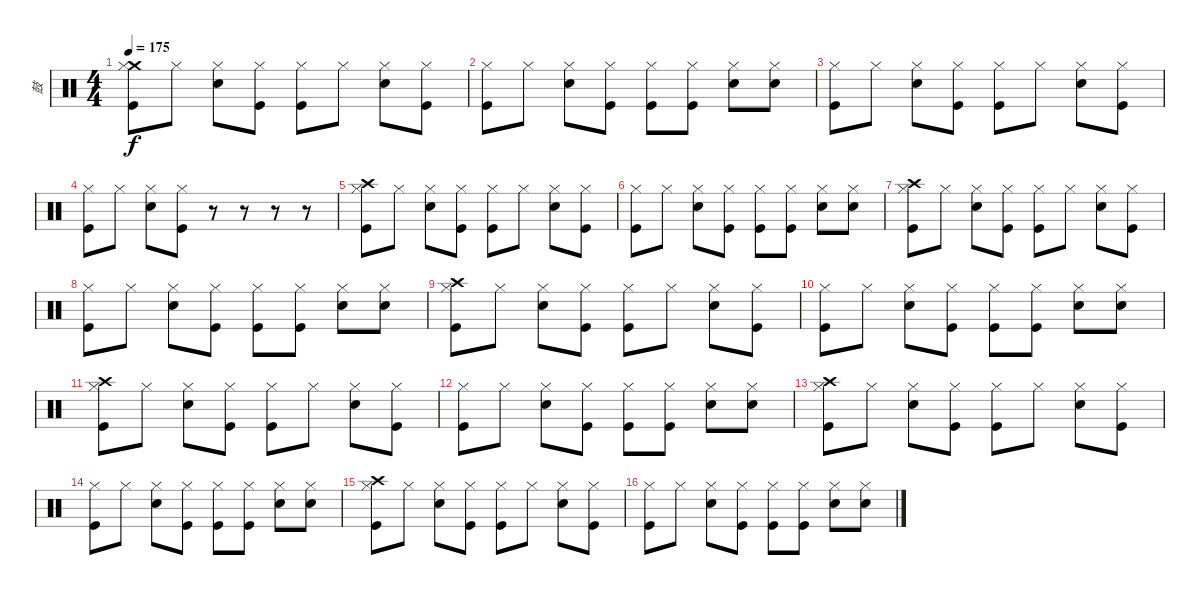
\track ("鼓" "鼓") {instrument percussion}
\staff {score}
\articulation defaults
\ts (4 4)
\tempo 175
\clef neutral
\ks c
("Crash medium (hit)" "Hi-Hat (closed)" "Kick (hit)").8{dy f} "Hi-Hat (closed)".8 ("Hi-Hat (closed)" "Snare (hit) 2").8 ("Hi-Hat (closed)" "Kick (hit)").8 ("Hi-Hat (closed)" "Kick (hit)").8 "Hi-Hat (closed)".8 ("Hi-Hat (closed)" "Snare (hit) 2").8 ("Hi-Hat (closed)" "Kick (hit)").8 |
("Hi-Hat (closed)" "Kick (hit)").8 "Hi-Hat (closed)".8 ("Hi-Hat (closed)" "Snare (hit) 2").8 ("Hi-Hat (closed)" "Kick (hit)").8 ("Hi-Hat (closed)" "Kick (hit)").8 ("Hi-Hat (closed)" "Kick (hit)").8 ("Hi-Hat (closed)" "Snare (hit) 2").8 ("Hi-Hat (closed)" "Snare (hit) 2").8 |
("Hi-Hat (closed)" "Kick (hit)").8 "Hi-Hat (closed)".8 ("Hi-Hat (closed)" "Snare (hit) 2").8 ("Hi-Hat (closed)" "Kick (hit)").8 ("Hi-Hat (closed)" "Kick (hit)").8 "Hi-Hat (closed)".8 ("Hi-Hat (closed)" "Snare (hit) 2").8 ("Hi-Hat (closed)" "Kick (hit)").8 |
("Hi-Hat (closed)" "Kick (hit)").8 "Hi-Hat (closed)".8 ("Hi-Hat (closed)" "Snare (hit) 2").8 ("Hi-Hat (closed)" "Kick (hit)").8 r.8 r.8 r.8 r.8 |
("Crash high (hit)" "Hi-Hat (closed)" "Kick (hit)").8 "Hi-Hat (closed)".8 ("Hi-Hat (closed)" "Snare (hit) 2").8 ("Hi-Hat (closed)" "Kick (hit)").8 ("Hi-Hat (closed)" "Kick (hit)").8 "Hi-Hat (closed)".8 ("Hi-Hat (closed)" "Snare (hit) 2").8 ("Hi-Hat (closed)" "Kick (hit)").8 |
("Hi-Hat (closed)" "Kick (hit)").8 "Hi-Hat (closed)".8 ("Hi-Hat (closed)" "Snare (hit) 2").8 ("Hi-Hat (closed)" "Kick (hit)").8 ("Hi-Hat (closed)" "Kick (hit)").8 ("Hi-Hat (closed)" "Kick (hit)").8 ("Hi-Hat (closed)" "Snare (hit) 2").8 ("Hi-Hat (closed)" "Snare (hit) 2").8 |
("Crash high (hit)" "Hi-Hat (closed)" "Kick (hit)").8 "Hi-Hat (closed)".8 ("Hi-Hat (closed)" "Snare (hit) 2").8 ("Hi-Hat (closed)" "Kick (hit)").8 ("Hi-Hat (closed)" "Kick (hit)").8 "Hi-Hat (closed)".8 ("Hi-Hat (closed)" "Snare (hit) 2").8 ("Hi-Hat (closed)" "Kick (hit)").8 |
("Hi-Hat (closed)" "Kick (hit)").8 "Hi-Hat (closed)".8 ("Hi-Hat (closed)" "Snare (hit) 2").8 ("Hi-Hat (closed)" "Kick (hit)").8 ("Hi-Hat (closed)" "Kick (hit)").8 ("Hi-Hat (closed)" "Kick (hit)").8 ("Hi-Hat (closed)" "Snare (hit) 2").8 ("Hi-Hat (closed)" "Snare (hit) 2").8 |
("Crash high (hit)" "Hi-Hat (closed)" "Kick (hit)").8 "Hi-Hat (closed)".8 ("Hi-Hat (closed)" "Snare (hit) 2").8 ("Hi-Hat (closed)" "Kick (hit)").8 ("Hi-Hat (closed)" "Kick (hit)").8 "Hi-Hat (closed)".8 ("Hi-Hat (closed)" "Snare (hit) 2").8 ("Hi-Hat (closed)" "Kick (hit)").8 |
("Hi-Hat (closed)" "Kick (hit)").8 "Hi-Hat (closed)".8 ("Hi-Hat (closed)" "Snare (hit) 2").8 ("Hi-Hat (closed)" "Kick (hit)").8 ("Hi-Hat (closed)" "Kick (hit)").8 ("Hi-Hat (closed)" "Kick (hit)").8 ("Hi-Hat (closed)" "Snare (hit) 2").8 ("Hi-Hat (closed)" "Snare (hit) 2").8 |
("Crash high (hit)" "Hi-Hat (closed)" "Kick (hit)").8 "Hi-Hat (closed)".8 ("Hi-Hat (closed)" "Snare (hit) 2").8 ("Hi-Hat (closed)" "Kick (hit)").8 ("Hi-Hat (closed)" "Kick (hit)").8 "Hi-Hat (closed)".8 ("Hi-Hat (closed)" "Snare (hit) 2").8 ("Hi-Hat (closed)" "Kick (hit)").8 |
("Hi-Hat (closed)" "Kick (hit)").8 "Hi-Hat (closed)".8 ("Hi-Hat (closed)" "Snare (hit) 2").8 ("Hi-Hat (closed)" "Kick (hit)").8 ("Hi-Hat (closed)" "Kick (hit)").8 ("Hi-Hat (closed)" "Kick (hit)").8 ("Hi-Hat (closed)" "Snare (hit) 2").8 ("Hi-Hat (closed)" "Snare (hit) 2").8 |
("Crash high (hit)" "Hi-Hat (closed)" "Kick (hit)").8 "Hi-Hat (closed)".8 ("Hi-Hat (closed)" "Snare (hit) 2").8 ("Hi-Hat (closed)" "Kick (hit)").8 ("Hi-Hat (closed)" "Kick (hit)").8 "Hi-Hat (closed)".8 ("Hi-Hat (closed)" "Snare (hit) 2").8 ("Hi-Hat (closed)" "Kick (hit)").8 |
("Hi-Hat (closed)" "Kick (hit)").8 "Hi-Hat (closed)".8 ("Hi-Hat (closed)" "Snare (hit) 2").8 ("Hi-Hat (closed)" "Kick (hit)").8 ("Hi-Hat (closed)" "Kick (hit)").8 ("Hi-Hat (closed)" "Kick (hit)").8 ("Hi-Hat (closed)" "Snare (hit) 2").8 ("Hi-Hat (closed)" "Snare (hit) 2").8 |
("Crash high (hit)" "Hi-Hat (closed)" "Kick (hit)").8 "Hi-Hat (closed)".8 ("Hi-Hat (closed)" "Snare (hit) 2").8 ("Hi-Hat (closed)" "Kick (hit)").8 ("Hi-Hat (closed)" "Kick (hit)").8 "Hi-Hat (closed)".8 ("Hi-Hat (closed)" "Snare (hit) 2").8 ("Hi-Hat (closed)" "Kick (hit)").8 |
("Hi-Hat (closed)" "Kick (hit)").8 "Hi-Hat (closed)".8 ("Hi-Hat (closed)" "Snare (hit) 2").8 ("Hi-Hat (closed)" "Kick (hit)").8 ("Hi-Hat (closed)" "Kick (hit)").8 ("Hi-Hat (closed)" "Kick (hit)").8 ("Hi-Hat (closed)" "Snare (hit) 2").8 ("Hi-Hat (closed)" "Snare (hit) 2").8
